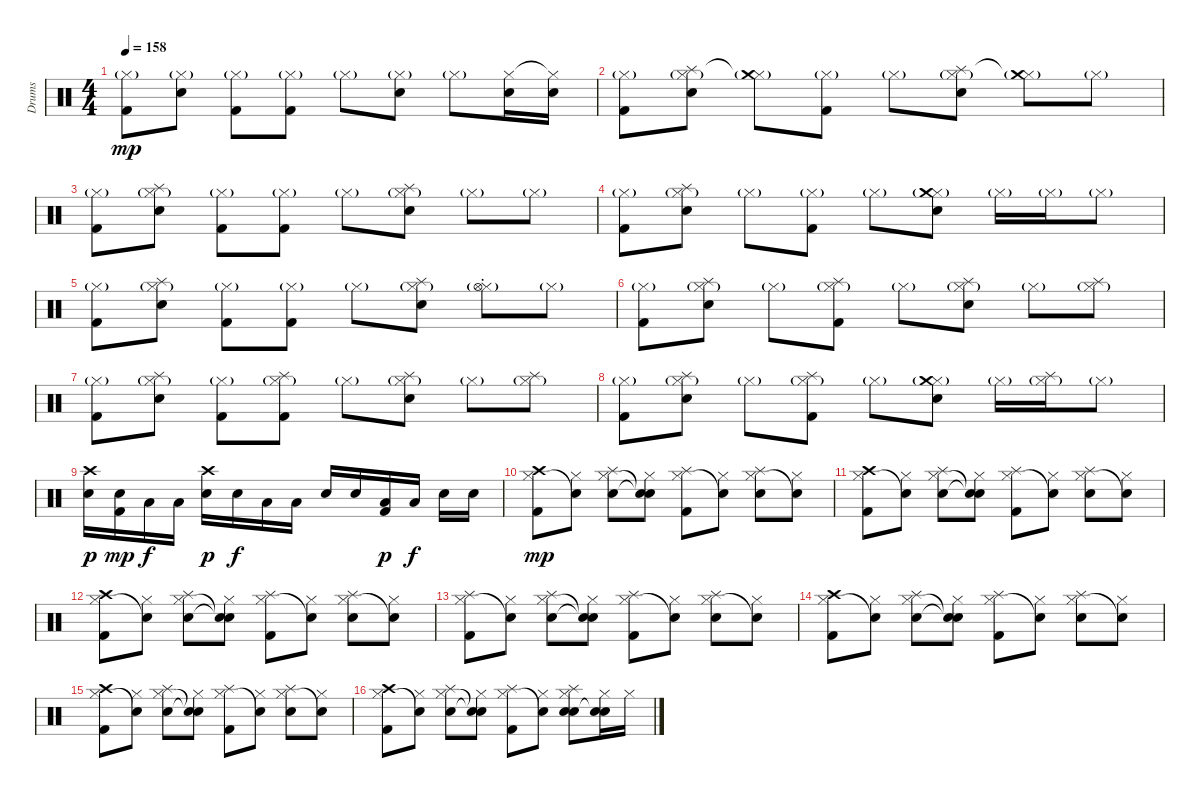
\track ("Drums" "Drums") {instrument percussion}
\staff {score}
\articulation defaults
\ts (4 4)
\tempo 158
\clef neutral
\ks c
("Hi-Hat (closed)"{g} "Kick (hit) 2").8{dy mp} ("Hi-Hat (closed)"{g} "Electric Snare (hit)").8 ("Hi-Hat (closed)"{g} "Kick (hit) 2").8 ("Hi-Hat (closed)"{g} "Kick (hit) 2").8 "Hi-Hat (closed)"{g}.8 ("Hi-Hat (closed)"{g} "Electric Snare (hit)").8 "Hi-Hat (closed)"{g}.8 ("Hi-Hat (closed)" "Electric Snare (hit)").16 ("Hi-Hat (closed)"{t} "Electric Snare (hit)").16 |
("Hi-Hat (closed)"{g} "Kick (hit) 2").8 ("Hi-Hat (closed)"{g} "Splash (hit)" "Electric Snare (hit)").8 ("Hi-Hat (closed)"{g} "Crash medium (hit)"{t}).8 ("Hi-Hat (closed)"{g} "Kick (hit) 2").8 "Hi-Hat (closed)"{g}.8 ("Hi-Hat (closed)"{g} "Splash (hit)" "Electric Snare (hit)").8 ("Hi-Hat (closed)"{g} "Crash medium (hit)"{t}).8 "Hi-Hat (closed)"{g}.8 |
("Hi-Hat (closed)"{g} "Kick (hit) 2").8 ("Hi-Hat (closed)"{g} "Splash (hit)" "Electric Snare (hit)").8 ("Hi-Hat (closed)"{g} "Kick (hit) 2").8 ("Hi-Hat (closed)"{g} "Kick (hit) 2").8 "Hi-Hat (closed)"{g}.8 ("Hi-Hat (closed)"{g} "Splash (hit)" "Electric Snare (hit)").8 "Hi-Hat (closed)"{g}.8 "Hi-Hat (closed)"{g}.8 |
("Hi-Hat (closed)"{g} "Kick (hit) 2").8 ("Hi-Hat (closed)"{g} "Splash (hit)" "Electric Snare (hit)").8 "Hi-Hat (closed)"{g}.8 ("Hi-Hat (closed)"{g} "Kick (hit) 2").8 "Hi-Hat (closed)"{g}.8 ("Hi-Hat (closed)"{g} "Crash medium (hit)" "Electric Snare (hit)").8 "Hi-Hat (closed)"{g}.16 "Hi-Hat (closed)"{g}.16 "Hi-Hat (closed)"{g}.8 |
("Hi-Hat (closed)"{g} "Kick (hit) 2").8 ("Hi-Hat (closed)"{g} "Splash (hit)" "Electric Snare (hit)").8 ("Hi-Hat (closed)"{g} "Kick (hit) 2").8 ("Hi-Hat (closed)"{g} "Kick (hit) 2").8 "Hi-Hat (closed)"{g}.8 ("Hi-Hat (closed)"{g} "Splash (hit)" "Electric Snare (hit)").8 ("Hi-Hat (closed)"{g} "Hi-Hat (open)"{st}).8 "Hi-Hat (closed)"{g}.8 |
("Hi-Hat (closed)"{g} "Kick (hit) 2").8 ("Hi-Hat (closed)"{g} "Splash (hit)" "Electric Snare (hit)").8 "Hi-Hat (closed)"{g}.8 ("Hi-Hat (closed)"{g} "Splash (hit)" "Kick (hit) 2").8 "Hi-Hat (closed)"{g}.8 ("Hi-Hat (closed)"{g} "Splash (hit)" "Electric Snare (hit)").8 "Hi-Hat (closed)"{g}.8 ("Hi-Hat (closed)"{g} "Splash (hit)").8 |
("Hi-Hat (closed)"{g} "Kick (hit) 2").8 ("Hi-Hat (closed)"{g} "Splash (hit)" "Electric Snare (hit)").8 ("Hi-Hat (closed)"{g} "Kick (hit) 2").8 ("Hi-Hat (closed)"{g} "Splash (hit)" "Kick (hit) 2").8 "Hi-Hat (closed)"{g}.8 ("Hi-Hat (closed)"{g} "Splash (hit)" "Electric Snare (hit)").8 "Hi-Hat (closed)"{g}.8 ("Hi-Hat (closed)"{g} "Splash (hit)").8 |
("Hi-Hat (closed)"{g} "Kick (hit) 2").8 ("Hi-Hat (closed)"{g} "Splash (hit)" "Electric Snare (hit)").8 "Hi-Hat (closed)"{g}.8 ("Hi-Hat (closed)"{g} "Splash (hit)" "Kick (hit) 2").8 "Hi-Hat (closed)"{g}.8 ("Hi-Hat (closed)"{g} "Crash medium (hit)" "Electric Snare (hit)").8 "Hi-Hat (closed)"{g}.16 ("Hi-Hat (closed)"{g} "Splash (hit)").16 "Hi-Hat (closed)"{g}.8 |
("Crash high (hit)" "Electric Snare (hit)").16{dy p} ("Electric Snare (hit)" "Kick (hit) 2").16{dy mp} "Low Tom (hit)".16{dy f} "Low Tom (hit)".16 ("Crash high (hit)" "Electric Snare (hit)").16{dy p} "Electric Snare (hit)".16{dy f} "Low Tom (hit)".16 "Low Tom (hit)".16 "Electric Snare (hit)".16 "Electric Snare (hit)".16 ("Low Tom (hit)" "Kick (hit) 2").16{dy p} "Low Tom (hit)".16{dy f} "Electric Snare (hit)".16 "Electric Snare (hit)".16 |
("Crash high (hit)" "Hi-Hat (closed)" "Kick (hit) 2").8{dy mp} ("Hi-Hat (closed)" "Snare (hit)"{t}).8 ("Splash (hit)" "Hi-Hat (closed)" "Electric Snare (hit)").8 ("Hi-Hat (closed)" "Electric Snare (hit)"{t} "Snare (hit)"{t}).8 ("Splash (hit)" "Hi-Hat (closed)" "Kick (hit) 2").8 ("Hi-Hat (closed)" "Snare (hit)"{t}).8 ("Splash (hit)" "Hi-Hat (closed)" "Electric Snare (hit)").8 ("Hi-Hat (closed)" "Snare (hit)"{t}).8 |
("Crash high (hit)" "Hi-Hat (closed)" "Kick (hit) 2").8 ("Hi-Hat (closed)" "Snare (hit)"{t}).8 ("Splash (hit)" "Hi-Hat (closed)" "Electric Snare (hit)").8 ("Hi-Hat (closed)" "Electric Snare (hit)"{t} "Snare (hit)"{t}).8 ("Splash (hit)" "Hi-Hat (closed)" "Kick (hit) 2").8 ("Hi-Hat (closed)" "Snare (hit)"{t}).8 ("Splash (hit)" "Hi-Hat (closed)" "Electric Snare (hit)").8 ("Hi-Hat (closed)" "Snare (hit)"{t}).8 |
("Crash high (hit)" "Hi-Hat (closed)" "Kick (hit) 2").8 ("Hi-Hat (closed)" "Snare (hit)"{t}).8 ("Splash (hit)" "Hi-Hat (closed)" "Electric Snare (hit)").8 ("Hi-Hat (closed)" "Electric Snare (hit)"{t} "Snare (hit)"{t}).8 ("Splash (hit)" "Hi-Hat (closed)" "Kick (hit) 2").8 ("Hi-Hat (closed)" "Snare (hit)"{t}).8 ("Splash (hit)" "Hi-Hat (closed)" "Electric Snare (hit)").8 ("Hi-Hat (closed)" "Snare (hit)"{t}).8 |
("Splash (hit)" "Hi-Hat (closed)" "Kick (hit) 2").8 ("Hi-Hat (closed)" "Snare (hit)"{t}).8 ("Splash (hit)" "Hi-Hat (closed)" "Electric Snare (hit)").8 ("Hi-Hat (closed)" "Electric Snare (hit)"{t} "Snare (hit)"{t}).8 ("Splash (hit)" "Hi-Hat (closed)" "Kick (hit) 2").8 ("Hi-Hat (closed)" "Snare (hit)"{t}).8 ("Splash (hit)" "Hi-Hat (closed)" "Electric Snare (hit)").8 ("Hi-Hat (closed)" "Snare (hit)"{t}).8 |
("Crash high (hit)" "Hi-Hat (closed)" "Kick (hit) 2").8 ("Hi-Hat (closed)" "Snare (hit)"{t}).8 ("Splash (hit)" "Hi-Hat (closed)" "Electric Snare (hit)").8 ("Hi-Hat (closed)" "Electric Snare (hit)"{t} "Snare (hit)"{t}).8 ("Splash (hit)" "Hi-Hat (closed)" "Kick (hit) 2").8 ("Hi-Hat (closed)" "Snare (hit)"{t}).8 ("Splash (hit)" "Hi-Hat (closed)" "Electric Snare (hit)").8 ("Hi-Hat (closed)" "Snare (hit)"{t}).8 |
("Crash high (hit)" "Hi-Hat (closed)" "Kick (hit) 2").8 ("Hi-Hat (closed)" "Snare (hit)"{t}).8 ("Splash (hit)" "Hi-Hat (closed)" "Electric Snare (hit)").8 ("Hi-Hat (closed)" "Electric Snare (hit)"{t} "Snare (hit)"{t}).8 ("Splash (hit)" "Hi-Hat (closed)" "Kick (hit) 2").8 ("Hi-Hat (closed)" "Snare (hit)"{t}).8 ("Splash (hit)" "Hi-Hat (closed)" "Electric Snare (hit)").8 ("Hi-Hat (closed)" "Snare (hit)"{t}).8 |
("Crash high (hit)" "Hi-Hat (closed)" "Kick (hit) 2").8 ("Hi-Hat (closed)" "Snare (hit)"{t}).8 ("Splash (hit)" "Hi-Hat (closed)" "Electric Snare (hit)").8 ("Hi-Hat (closed)" "Electric Snare (hit)"{t} "Snare (hit)"{t}).8 ("Splash (hit)" "Hi-Hat (closed)" "Kick (hit) 2").8 ("Hi-Hat (closed)" "Snare (hit)"{t}).8 ("Splash (hit)" "Hi-Hat (closed)" "Electric Snare (hit)" "Electric Snare (hit)").8 ("Hi-Hat (closed)" "Electric Snare (hit)" "Snare (hit)"{t}).16 "Hi-Hat (closed)".16
